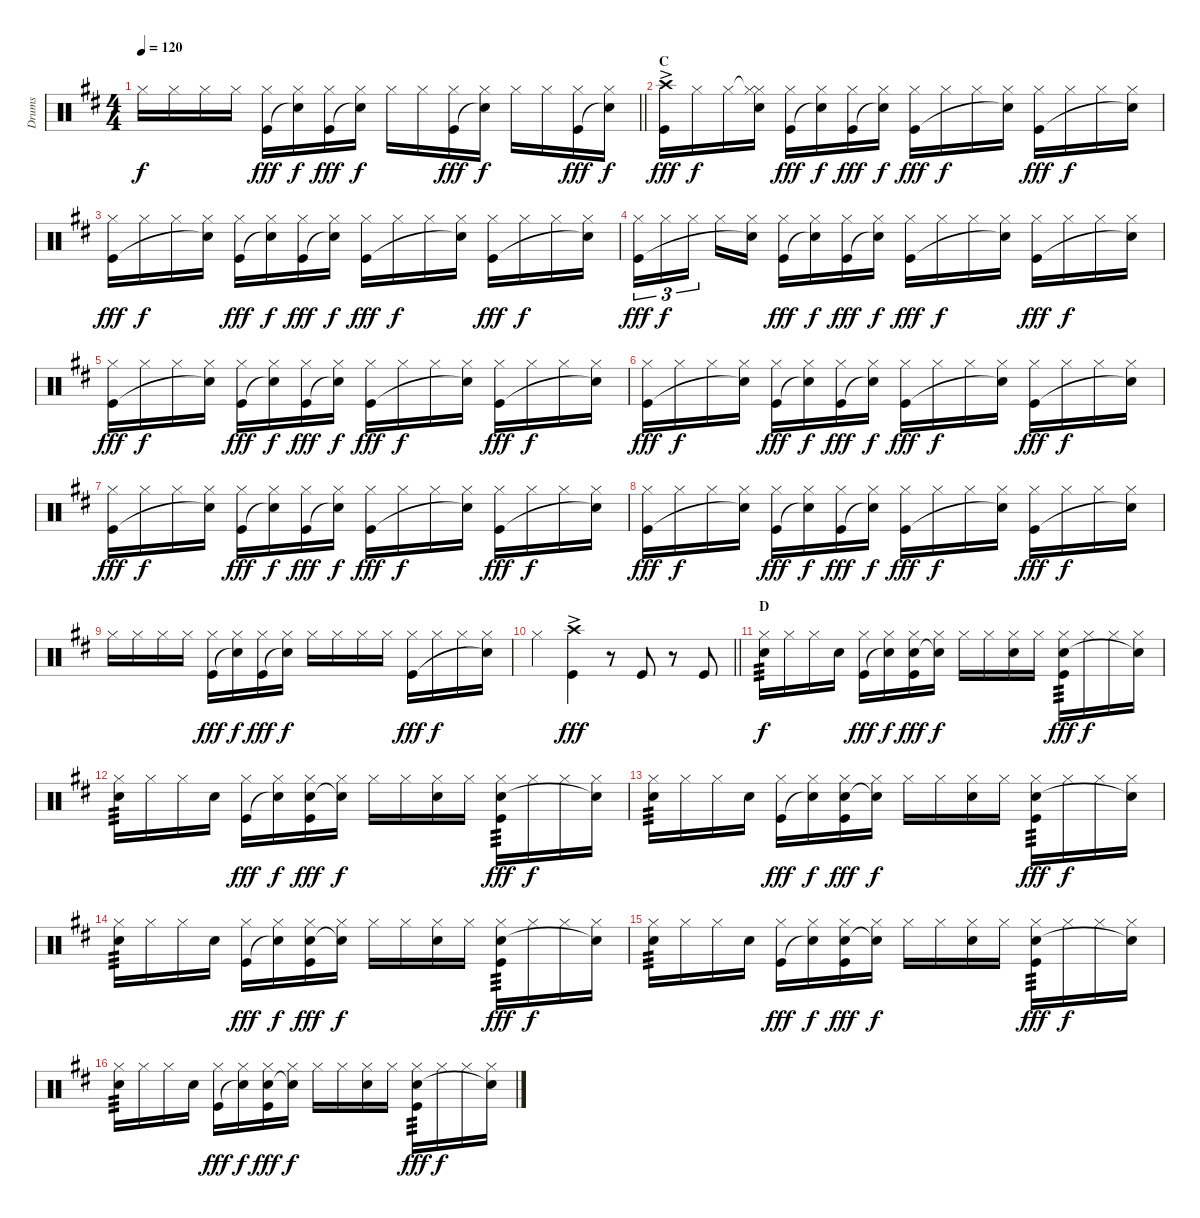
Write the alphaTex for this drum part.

\track ("Drums" "Drums") {instrument percussion}
\staff {score}
\articulation defaults
\ts (4 4)
\tempo 120
\clef neutral
\barLineRight lightlight
\ks d "Hi-Hat (closed)".16{dy f} "Hi-Hat (closed)".16 "Hi-Hat (closed)".16 "Hi-Hat (closed)".16
("Hi-Hat (closed)" "Kick (hit)").16{dy fff} ("Hi-Hat (closed)" "Snare (hit)"{t}).16{dy f} ("Hi-Hat (closed)" "Kick (hit)").16{dy fff} ("Hi-Hat (closed)" "Snare (hit)"{t}).16{dy f} "Hi-Hat (closed)".16 "Hi-Hat (closed)".16 ("Hi-Hat (closed)" "Kick (hit)").16{dy fff} ("Hi-Hat (closed)" "Snare (hit)"{t}).16{dy f} "Hi-Hat (closed)".16 "Hi-Hat (closed)".16 ("Hi-Hat (closed)" "Kick (hit)").16{dy fff} ("Hi-Hat (closed)" "Snare (hit)"{t}).16{dy f} |
\section ("" "C")
("Crash high (hit)"{ac} "Kick (hit)").16{dy fff} "Hi-Hat (closed)".16{dy f} "Hi-Hat (closed)".16 ("Hi-Hat (closed)"{t} "Hi-Hat (closed)" "Snare (hit)").16 ("Hi-Hat (closed)" "Kick (hit)").16{dy fff} ("Hi-Hat (closed)" "Snare (hit)"{t}).16{dy f} ("Hi-Hat (closed)" "Kick (hit)").16{dy fff} ("Hi-Hat (closed)" "Snare (hit)"{t}).16{dy f} ("Hi-Hat (closed)" "Kick (hit)").16{dy fff} "Hi-Hat (closed)".16{dy f} "Hi-Hat (closed)".16 ("Hi-Hat (closed)" "Snare (hit)"{t}).16 ("Hi-Hat (closed)" "Kick (hit)").16{dy fff} "Hi-Hat (closed)".16{dy f} "Hi-Hat (closed)".16 ("Hi-Hat (closed)" "Snare (hit)"{t}).16 |
("Hi-Hat (closed)" "Kick (hit)").16{dy fff} "Hi-Hat (closed)".16{dy f} "Hi-Hat (closed)".16 ("Hi-Hat (closed)" "Snare (hit)"{t}).16 ("Hi-Hat (closed)" "Kick (hit)").16{dy fff} ("Hi-Hat (closed)" "Snare (hit)"{t}).16{dy f} ("Hi-Hat (closed)" "Kick (hit)").16{dy fff} ("Hi-Hat (closed)" "Snare (hit)"{t}).16{dy f} ("Hi-Hat (closed)" "Kick (hit)").16{dy fff} "Hi-Hat (closed)".16{dy f} "Hi-Hat (closed)".16 ("Hi-Hat (closed)" "Snare (hit)"{t}).16 ("Hi-Hat (closed)" "Kick (hit)").16{dy fff} "Hi-Hat (closed)".16{dy f} "Hi-Hat (closed)".16 ("Hi-Hat (closed)" "Snare (hit)"{t}).16 |
("Hi-Hat (closed)" "Kick (hit)").16{tu (3 2) dy fff} "Hi-Hat (closed)".16{tu (3 2) dy f} "Hi-Hat (closed)".16{tu (3 2) beam splitsecondary} "Hi-Hat (closed)".16 ("Hi-Hat (closed)" "Snare (hit)"{t}).16 ("Hi-Hat (closed)" "Kick (hit)").16{dy fff} ("Hi-Hat (closed)" "Snare (hit)"{t}).16{dy f} ("Hi-Hat (closed)" "Kick (hit)").16{dy fff} ("Hi-Hat (closed)" "Snare (hit)"{t}).16{dy f} ("Hi-Hat (closed)" "Kick (hit)").16{dy fff} "Hi-Hat (closed)".16{dy f} "Hi-Hat (closed)".16 ("Hi-Hat (closed)" "Snare (hit)"{t}).16 ("Hi-Hat (closed)" "Kick (hit)").16{dy fff} "Hi-Hat (closed)".16{dy f} "Hi-Hat (closed)".16 ("Hi-Hat (closed)" "Snare (hit)"{t}).16 |
("Hi-Hat (closed)" "Kick (hit)").16{dy fff} "Hi-Hat (closed)".16{dy f} "Hi-Hat (closed)".16 ("Hi-Hat (closed)" "Snare (hit)"{t}).16 ("Hi-Hat (closed)" "Kick (hit)").16{dy fff} ("Hi-Hat (closed)" "Snare (hit)"{t}).16{dy f} ("Hi-Hat (closed)" "Kick (hit)").16{dy fff} ("Hi-Hat (closed)" "Snare (hit)"{t}).16{dy f} ("Hi-Hat (closed)" "Kick (hit)").16{dy fff} "Hi-Hat (closed)".16{dy f} "Hi-Hat (closed)".16 ("Hi-Hat (closed)" "Snare (hit)"{t}).16 ("Hi-Hat (closed)" "Kick (hit)").16{dy fff} "Hi-Hat (closed)".16{dy f} "Hi-Hat (closed)".16 ("Hi-Hat (closed)" "Snare (hit)"{t}).16 |
("Hi-Hat (closed)" "Kick (hit)").16{dy fff} "Hi-Hat (closed)".16{dy f} "Hi-Hat (closed)".16 ("Hi-Hat (closed)" "Snare (hit)"{t}).16 ("Hi-Hat (closed)" "Kick (hit)").16{dy fff} ("Hi-Hat (closed)" "Snare (hit)"{t}).16{dy f} ("Hi-Hat (closed)" "Kick (hit)").16{dy fff} ("Hi-Hat (closed)" "Snare (hit)"{t}).16{dy f} ("Hi-Hat (closed)" "Kick (hit)").16{dy fff} "Hi-Hat (closed)".16{dy f} "Hi-Hat (closed)".16 ("Hi-Hat (closed)" "Snare (hit)"{t}).16 ("Hi-Hat (closed)" "Kick (hit)").16{dy fff} "Hi-Hat (closed)".16{dy f} "Hi-Hat (closed)".16 ("Hi-Hat (closed)" "Snare (hit)"{t}).16 |
("Hi-Hat (closed)" "Kick (hit)").16{dy fff} "Hi-Hat (closed)".16{dy f} "Hi-Hat (closed)".16 ("Hi-Hat (closed)" "Snare (hit)"{t}).16 ("Hi-Hat (closed)" "Kick (hit)").16{dy fff} ("Hi-Hat (closed)" "Snare (hit)"{t}).16{dy f} ("Hi-Hat (closed)" "Kick (hit)").16{dy fff} ("Hi-Hat (closed)" "Snare (hit)"{t}).16{dy f} ("Hi-Hat (closed)" "Kick (hit)").16{dy fff} "Hi-Hat (closed)".16{dy f} "Hi-Hat (closed)".16 ("Hi-Hat (closed)" "Snare (hit)"{t}).16 ("Hi-Hat (closed)" "Kick (hit)").16{dy fff} "Hi-Hat (closed)".16{dy f} "Hi-Hat (closed)".16 ("Hi-Hat (closed)" "Snare (hit)"{t}).16 |
("Hi-Hat (closed)" "Kick (hit)").16{dy fff} "Hi-Hat (closed)".16{dy f} "Hi-Hat (closed)".16 ("Hi-Hat (closed)" "Snare (hit)"{t}).16 ("Hi-Hat (closed)" "Kick (hit)").16{dy fff} ("Hi-Hat (closed)" "Snare (hit)"{t}).16{dy f} ("Hi-Hat (closed)" "Kick (hit)").16{dy fff} ("Hi-Hat (closed)" "Snare (hit)"{t}).16{dy f} ("Hi-Hat (closed)" "Kick (hit)").16{dy fff} "Hi-Hat (closed)".16{dy f} "Hi-Hat (closed)".16 ("Hi-Hat (closed)" "Snare (hit)"{t}).16 ("Hi-Hat (closed)" "Kick (hit)").16{dy fff} "Hi-Hat (closed)".16{dy f} "Hi-Hat (closed)".16 ("Hi-Hat (closed)" "Snare (hit)"{t}).16 |
"Hi-Hat (closed)".16 "Hi-Hat (closed)".16 "Hi-Hat (closed)".16 "Hi-Hat (closed)".16 ("Hi-Hat (closed)" "Kick (hit)").16{dy fff} ("Hi-Hat (closed)" "Snare (hit)"{t}).16{dy f} ("Hi-Hat (closed)" "Kick (hit)").16{dy fff} ("Hi-Hat (closed)" "Snare (hit)"{t}).16{dy f} "Hi-Hat (closed)".16 "Hi-Hat (closed)".16 "Hi-Hat (closed)".16 "Hi-Hat (closed)".16 ("Hi-Hat (closed)" "Kick (hit)").16{dy fff} "Hi-Hat (closed)".16{dy f} "Hi-Hat (closed)".16 ("Hi-Hat (closed)" "Snare (hit)"{t}).16 |
\barLineRight lightlight "Hi-Hat (closed)".4
("Crash high (hit)"{ac} "Kick (hit)").4{dy fff} r.8 "Kick (hit)".8 r.8 "Kick (hit)".8 |
\section ("" "D")
("Hi-Hat (closed)" "Snare (hit) 2").16{tp 3 dy f} "Hi-Hat (closed)".16 "Hi-Hat (closed)".16 "Snare (hit) 2".16 ("Hi-Hat (closed)" "Kick (hit)").16{dy fff} ("Hi-Hat (closed)" "Snare (hit)"{t}).16{dy f} ("Hi-Hat (closed)" "Snare (hit) 2" "Kick (hit)").16{dy fff} ("Hi-Hat (closed)" "Snare (hit)"{t}).16{dy f} "Hi-Hat (closed)".16 "Hi-Hat (closed)".16 ("Hi-Hat (closed)" "Snare (hit) 2").16 "Hi-Hat (closed)".16 ("Hi-Hat (closed)" "Snare (hit) 2" "Kick (hit)").16{tp 3 dy fff} "Hi-Hat (closed)".16{dy f} "Hi-Hat (closed)".16 ("Hi-Hat (closed)" "Snare (hit)"{t}).16 |
("Hi-Hat (closed)" "Snare (hit) 2").16{tp 3} "Hi-Hat (closed)".16 "Hi-Hat (closed)".16 "Snare (hit) 2".16 ("Hi-Hat (closed)" "Kick (hit)").16{dy fff} ("Hi-Hat (closed)" "Snare (hit)"{t}).16{dy f} ("Hi-Hat (closed)" "Snare (hit) 2" "Kick (hit)").16{dy fff} ("Hi-Hat (closed)" "Snare (hit)"{t}).16{dy f} "Hi-Hat (closed)".16 "Hi-Hat (closed)".16 ("Hi-Hat (closed)" "Snare (hit) 2").16 "Hi-Hat (closed)".16 ("Hi-Hat (closed)" "Snare (hit) 2" "Kick (hit)").16{tp 3 dy fff} "Hi-Hat (closed)".16{dy f} "Hi-Hat (closed)".16 ("Hi-Hat (closed)" "Snare (hit)"{t}).16 |
("Hi-Hat (closed)" "Snare (hit) 2").16{tp 3} "Hi-Hat (closed)".16 "Hi-Hat (closed)".16 "Snare (hit) 2".16 ("Hi-Hat (closed)" "Kick (hit)").16{dy fff} ("Hi-Hat (closed)" "Snare (hit)"{t}).16{dy f} ("Hi-Hat (closed)" "Snare (hit) 2" "Kick (hit)").16{dy fff} ("Hi-Hat (closed)" "Snare (hit)"{t}).16{dy f} "Hi-Hat (closed)".16 "Hi-Hat (closed)".16 ("Hi-Hat (closed)" "Snare (hit) 2").16 "Hi-Hat (closed)".16 ("Hi-Hat (closed)" "Snare (hit) 2" "Kick (hit)").16{tp 3 dy fff} "Hi-Hat (closed)".16{dy f} "Hi-Hat (closed)".16 ("Hi-Hat (closed)" "Snare (hit)"{t}).16 |
("Hi-Hat (closed)" "Snare (hit) 2").16{tp 3} "Hi-Hat (closed)".16 "Hi-Hat (closed)".16 "Snare (hit) 2".16 ("Hi-Hat (closed)" "Kick (hit)").16{dy fff} ("Hi-Hat (closed)" "Snare (hit)"{t}).16{dy f} ("Hi-Hat (closed)" "Snare (hit) 2" "Kick (hit)").16{dy fff} ("Hi-Hat (closed)" "Snare (hit)"{t}).16{dy f} "Hi-Hat (closed)".16 "Hi-Hat (closed)".16 ("Hi-Hat (closed)" "Snare (hit) 2").16 "Hi-Hat (closed)".16 ("Hi-Hat (closed)" "Snare (hit) 2" "Kick (hit)").16{tp 3 dy fff} "Hi-Hat (closed)".16{dy f} "Hi-Hat (closed)".16 ("Hi-Hat (closed)" "Snare (hit)"{t}).16 |
("Hi-Hat (closed)" "Snare (hit) 2").16{tp 3} "Hi-Hat (closed)".16 "Hi-Hat (closed)".16 "Snare (hit) 2".16 ("Hi-Hat (closed)" "Kick (hit)").16{dy fff} ("Hi-Hat (closed)" "Snare (hit)"{t}).16{dy f} ("Hi-Hat (closed)" "Snare (hit) 2" "Kick (hit)").16{dy fff} ("Hi-Hat (closed)" "Snare (hit)"{t}).16{dy f} "Hi-Hat (closed)".16 "Hi-Hat (closed)".16 ("Hi-Hat (closed)" "Snare (hit) 2").16 "Hi-Hat (closed)".16 ("Hi-Hat (closed)" "Snare (hit) 2" "Kick (hit)").16{tp 3 dy fff} "Hi-Hat (closed)".16{dy f} "Hi-Hat (closed)".16 ("Hi-Hat (closed)" "Snare (hit)"{t}).16 |
("Hi-Hat (closed)" "Snare (hit) 2").16{tp 3} "Hi-Hat (closed)".16 "Hi-Hat (closed)".16 "Snare (hit) 2".16 ("Hi-Hat (closed)" "Kick (hit)").16{dy fff} ("Hi-Hat (closed)" "Snare (hit)"{t}).16{dy f} ("Hi-Hat (closed)" "Snare (hit) 2" "Kick (hit)").16{dy fff} ("Hi-Hat (closed)" "Snare (hit)"{t}).16{dy f} "Hi-Hat (closed)".16 "Hi-Hat (closed)".16 ("Hi-Hat (closed)" "Snare (hit) 2").16 "Hi-Hat (closed)".16 ("Hi-Hat (closed)" "Snare (hit) 2" "Kick (hit)").16{tp 3 dy fff} "Hi-Hat (closed)".16{dy f} "Hi-Hat (closed)".16 ("Hi-Hat (closed)" "Snare (hit)"{t}).16
